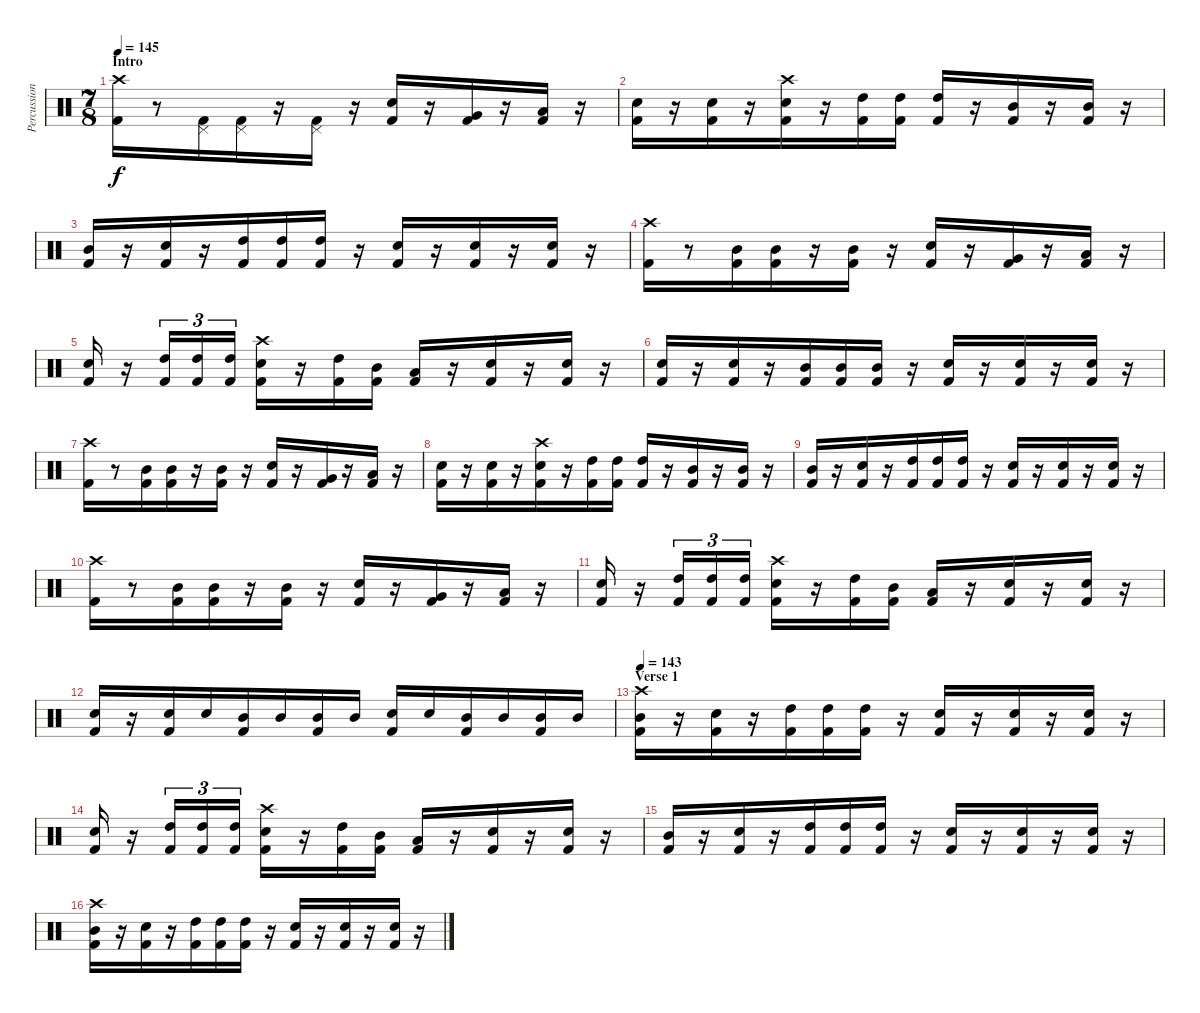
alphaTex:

\track ("Percussion" "Percussion") {instrument percussion}
\staff {score}
\articulation defaults
\ts (7 8)
\section ("" "Intro")
\tempo 145
\tempo 140
\tempo 145
\clef neutral
\ks c
("Crash high (hit)" "Kick (hit) 2").16{dy f} r.8 ("Pedal Hi-Hat (hit)" "Kick (hit) 2").16 ("Pedal Hi-Hat (hit)" "Kick (hit) 2").16 r.16 ("Pedal Hi-Hat (hit)" "Kick (hit) 2").16 r.16 ("Snare (hit) 2" "Kick (hit) 2").16 r.16 ("Very Low Tom (hit)" "Kick (hit) 2").16 r.16 ("Low Tom (hit)" "Kick (hit) 2").16 r.16 |
("Snare (hit) 2" "Kick (hit) 2").16 r.16 ("Snare (hit) 2" "Kick (hit) 2").16 r.16 ("Crash high (hit)" "Snare (hit) 2" "Kick (hit) 2").16 r.16 ("High Tom (hit)" "Kick (hit) 2").16 ("High Tom (hit)" "Kick (hit) 2").16 ("High Tom (hit)" "Kick (hit) 2").16 r.16 ("Mid Tom (hit)" "Kick (hit) 2").16 r.16 ("Mid Tom (hit)" "Kick (hit) 2").16 r.16 |
("Mid Tom (hit)" "Kick (hit) 2").16 r.16 ("Snare (hit) 2" "Kick (hit) 2").16 r.16 ("High Tom (hit)" "Kick (hit) 2").16 ("High Tom (hit)" "Kick (hit) 2").16 ("High Tom (hit)" "Kick (hit) 2").16 r.16 ("Snare (hit) 2" "Kick (hit) 2").16 r.16 ("Snare (hit) 2" "Kick (hit) 2").16 r.16 ("Snare (hit) 2" "Kick (hit) 2").16 r.16 |
("Crash high (hit)" "Kick (hit) 2").16 r.8 ("Mid Tom (hit)" "Kick (hit) 2").16 ("Mid Tom (hit)" "Kick (hit) 2").16 r.16 ("Mid Tom (hit)" "Kick (hit) 2").16 r.16 ("Snare (hit) 2" "Kick (hit) 2").16 r.16 ("Very Low Tom (hit)" "Kick (hit) 2").16 r.16 ("Low Tom (hit)" "Kick (hit) 2").16 r.16 |
("Electric Snare (hit)" "Kick (hit) 2").16 r.16 ("High Tom (hit)" "Kick (hit) 2").16{tu (3 2)} ("High Tom (hit)" "Kick (hit) 2").16{tu (3 2)} ("High Tom (hit)" "Kick (hit) 2").16{tu (3 2)} ("Crash high (hit)" "Snare (hit) 2" "Kick (hit) 2").16 r.16 ("High Tom (hit)" "Kick (hit) 2").16 ("Mid Tom (hit)" "Kick (hit) 2").16 ("Low Tom (hit)" "Kick (hit) 2").16 r.16 ("Snare (hit) 2" "Kick (hit) 2").16 r.16 ("Snare (hit) 2" "Kick (hit) 2").16 r.16 |
("Snare (hit) 2" "Kick (hit) 2").16 r.16 ("Snare (hit) 2" "Kick (hit) 2").16 r.16 ("Mid Tom (hit)" "Kick (hit) 2").16 ("Mid Tom (hit)" "Kick (hit) 2").16 ("Mid Tom (hit)" "Kick (hit) 2").16 r.16 ("Snare (hit) 2" "Kick (hit) 2").16 r.16 ("Snare (hit) 2" "Kick (hit) 2").16 r.16 ("Snare (hit) 2" "Kick (hit) 2").16 r.16 |
("Crash high (hit)" "Kick (hit) 2").16 r.8 ("Mid Tom (hit)" "Kick (hit) 2").16 ("Mid Tom (hit)" "Kick (hit) 2").16 r.16 ("Mid Tom (hit)" "Kick (hit) 2").16 r.16 ("Snare (hit) 2" "Kick (hit) 2").16 r.16 ("Very Low Tom (hit)" "Kick (hit) 2").16 r.16 ("Low Tom (hit)" "Kick (hit) 2").16 r.16 |
("Snare (hit) 2" "Kick (hit) 2").16 r.16 ("Snare (hit) 2" "Kick (hit) 2").16 r.16 ("Crash high (hit)" "Snare (hit) 2" "Kick (hit) 2").16 r.16 ("High Tom (hit)" "Kick (hit) 2").16 ("High Tom (hit)" "Kick (hit) 2").16 ("High Tom (hit)" "Kick (hit) 2").16 r.16 ("Mid Tom (hit)" "Kick (hit) 2").16 r.16 ("Mid Tom (hit)" "Kick (hit) 2").16 r.16 |
("Mid Tom (hit)" "Kick (hit) 2").16 r.16 ("Snare (hit) 2" "Kick (hit) 2").16 r.16 ("High Tom (hit)" "Kick (hit) 2").16 ("High Tom (hit)" "Kick (hit) 2").16 ("High Tom (hit)" "Kick (hit) 2").16 r.16 ("Snare (hit) 2" "Kick (hit) 2").16 r.16 ("Snare (hit) 2" "Kick (hit) 2").16 r.16 ("Snare (hit) 2" "Kick (hit) 2").16 r.16 |
("Crash high (hit)" "Kick (hit) 2").16 r.8 ("Mid Tom (hit)" "Kick (hit) 2").16 ("Mid Tom (hit)" "Kick (hit) 2").16 r.16 ("Mid Tom (hit)" "Kick (hit) 2").16 r.16 ("Snare (hit) 2" "Kick (hit) 2").16 r.16 ("Very Low Tom (hit)" "Kick (hit) 2").16 r.16 ("Low Tom (hit)" "Kick (hit) 2").16 r.16 |
("Electric Snare (hit)" "Kick (hit) 2").16 r.16 ("High Tom (hit)" "Kick (hit) 2").16{tu (3 2)} ("High Tom (hit)" "Kick (hit) 2").16{tu (3 2)} ("High Tom (hit)" "Kick (hit) 2").16{tu (3 2)} ("Crash high (hit)" "Snare (hit) 2" "Kick (hit) 2").16 r.16 ("High Tom (hit)" "Kick (hit) 2").16 ("Mid Tom (hit)" "Kick (hit) 2").16 ("Low Tom (hit)" "Kick (hit) 2").16 r.16 ("Snare (hit) 2" "Kick (hit) 2").16 r.16 ("Snare (hit) 2" "Kick (hit) 2").16 r.16 |
("Snare (hit) 2" "Kick (hit) 2").16 r.16 ("Electric Snare (hit)" "Kick (hit) 2").16 "Electric Snare (hit)".16 ("Mid Tom (hit)" "Kick (hit) 2").16 "Mid Tom (hit)".16 ("Mid Tom (hit)" "Kick (hit) 2").16 "Mid Tom (hit)".16 ("Electric Snare (hit)" "Kick (hit) 2").16 "Electric Snare (hit)".16 ("Mid Tom (hit)" "Kick (hit) 2").16 "Mid Tom (hit)".16 ("Mid Tom (hit)" "Kick (hit) 2").16 "Mid Tom (hit)".16 |
\section ("" "Verse 1")
\tempo 143
("Crash high (hit)" "Mid Tom (hit)" "Kick (hit) 2").16 r.16 ("Snare (hit) 2" "Kick (hit) 2").16 r.16 ("High Tom (hit)" "Kick (hit) 2").16 ("High Tom (hit)" "Kick (hit) 2").16 ("High Tom (hit)" "Kick (hit) 2").16 r.16 ("Snare (hit) 2" "Kick (hit) 2").16 r.16 ("Snare (hit) 2" "Kick (hit) 2").16 r.16 ("Snare (hit) 2" "Kick (hit) 2").16 r.16 |
("Electric Snare (hit)" "Kick (hit) 2").16 r.16 ("High Tom (hit)" "Kick (hit) 2").16{tu (3 2)} ("High Tom (hit)" "Kick (hit) 2").16{tu (3 2)} ("High Tom (hit)" "Kick (hit) 2").16{tu (3 2)} ("Crash high (hit)" "Snare (hit) 2" "Kick (hit) 2").16 r.16 ("High Tom (hit)" "Kick (hit) 2").16 ("Mid Tom (hit)" "Kick (hit) 2").16 ("Low Tom (hit)" "Kick (hit) 2").16 r.16 ("Snare (hit) 2" "Kick (hit) 2").16 r.16 ("Snare (hit) 2" "Kick (hit) 2").16 r.16 |
("Mid Tom (hit)" "Kick (hit) 2").16 r.16 ("Snare (hit) 2" "Kick (hit) 2").16 r.16 ("High Tom (hit)" "Kick (hit) 2").16 ("High Tom (hit)" "Kick (hit) 2").16 ("High Tom (hit)" "Kick (hit) 2").16 r.16 ("Snare (hit) 2" "Kick (hit) 2").16 r.16 ("Snare (hit) 2" "Kick (hit) 2").16 r.16 ("Snare (hit) 2" "Kick (hit) 2").16 r.16 |
("Crash high (hit)" "Mid Tom (hit)" "Kick (hit) 2").16 r.16 ("Snare (hit) 2" "Kick (hit) 2").16 r.16 ("High Tom (hit)" "Kick (hit) 2").16 ("High Tom (hit)" "Kick (hit) 2").16 ("High Tom (hit)" "Kick (hit) 2").16 r.16 ("Snare (hit) 2" "Kick (hit) 2").16 r.16 ("Snare (hit) 2" "Kick (hit) 2").16 r.16 ("Snare (hit) 2" "Kick (hit) 2").16 r.16
